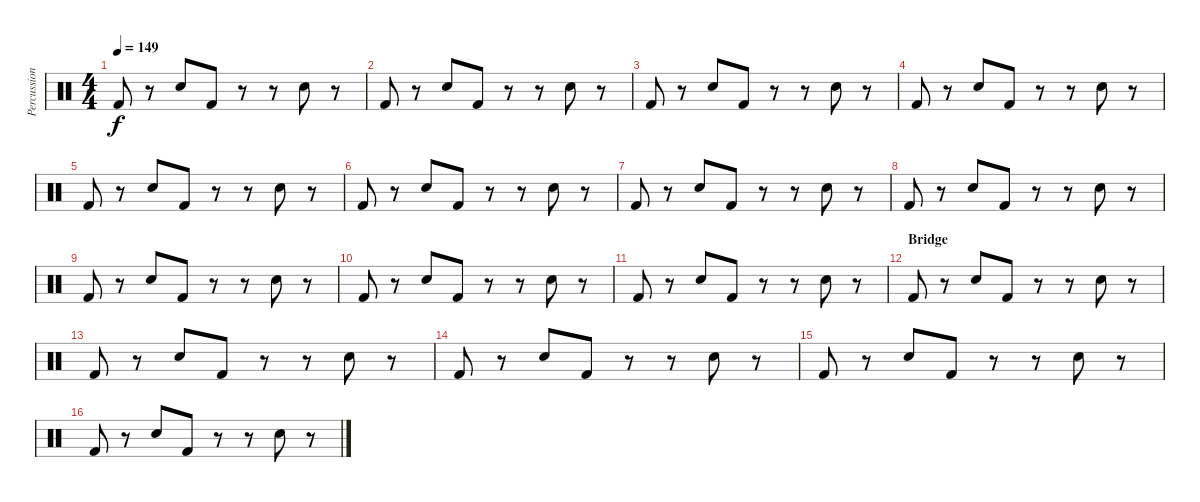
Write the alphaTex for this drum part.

\track ("Percussion" "Percussion") {instrument percussion}
\staff {score}
\articulation defaults
\ts (4 4)
\tempo 149
\clef neutral
\ks c "Kick (hit) 2".8{dy f}
r.8 "Hand Clap (hit)".8 "Kick (hit) 2".8 r.8 r.8 "Hand Clap (hit)".8 r.8 |
"Kick (hit) 2".8 r.8 "Hand Clap (hit)".8 "Kick (hit) 2".8 r.8 r.8 "Hand Clap (hit)".8 r.8 |
"Kick (hit) 2".8 r.8 "Hand Clap (hit)".8 "Kick (hit) 2".8 r.8 r.8 "Hand Clap (hit)".8 r.8 |
"Kick (hit) 2".8 r.8 "Hand Clap (hit)".8 "Kick (hit) 2".8 r.8 r.8 "Hand Clap (hit)".8 r.8 |
"Kick (hit) 2".8 r.8 "Hand Clap (hit)".8 "Kick (hit) 2".8 r.8 r.8 "Hand Clap (hit)".8 r.8 |
"Kick (hit) 2".8 r.8 "Hand Clap (hit)".8 "Kick (hit) 2".8 r.8 r.8 "Hand Clap (hit)".8 r.8 |
"Kick (hit) 2".8 r.8 "Hand Clap (hit)".8 "Kick (hit) 2".8 r.8 r.8 "Hand Clap (hit)".8 r.8 |
"Kick (hit) 2".8 r.8 "Hand Clap (hit)".8 "Kick (hit) 2".8 r.8 r.8 "Hand Clap (hit)".8 r.8 |
"Kick (hit) 2".8 r.8 "Hand Clap (hit)".8 "Kick (hit) 2".8 r.8 r.8 "Hand Clap (hit)".8 r.8 |
"Kick (hit) 2".8 r.8 "Hand Clap (hit)".8 "Kick (hit) 2".8 r.8 r.8 "Hand Clap (hit)".8 r.8 |
"Kick (hit) 2".8 r.8 "Hand Clap (hit)".8 "Kick (hit) 2".8 r.8 r.8 "Hand Clap (hit)".8 r.8 |
\section ("" "Bridge")
"Kick (hit) 2".8 r.8 "Hand Clap (hit)".8 "Kick (hit) 2".8 r.8 r.8 "Hand Clap (hit)".8 r.8 |
"Kick (hit) 2".8 r.8 "Hand Clap (hit)".8 "Kick (hit) 2".8 r.8 r.8 "Hand Clap (hit)".8 r.8 |
"Kick (hit) 2".8 r.8 "Hand Clap (hit)".8 "Kick (hit) 2".8 r.8 r.8 "Hand Clap (hit)".8 r.8 |
"Kick (hit) 2".8 r.8 "Hand Clap (hit)".8 "Kick (hit) 2".8 r.8 r.8 "Hand Clap (hit)".8 r.8 |
"Kick (hit) 2".8 r.8 "Hand Clap (hit)".8 "Kick (hit) 2".8 r.8 r.8 "Hand Clap (hit)".8 r.8
